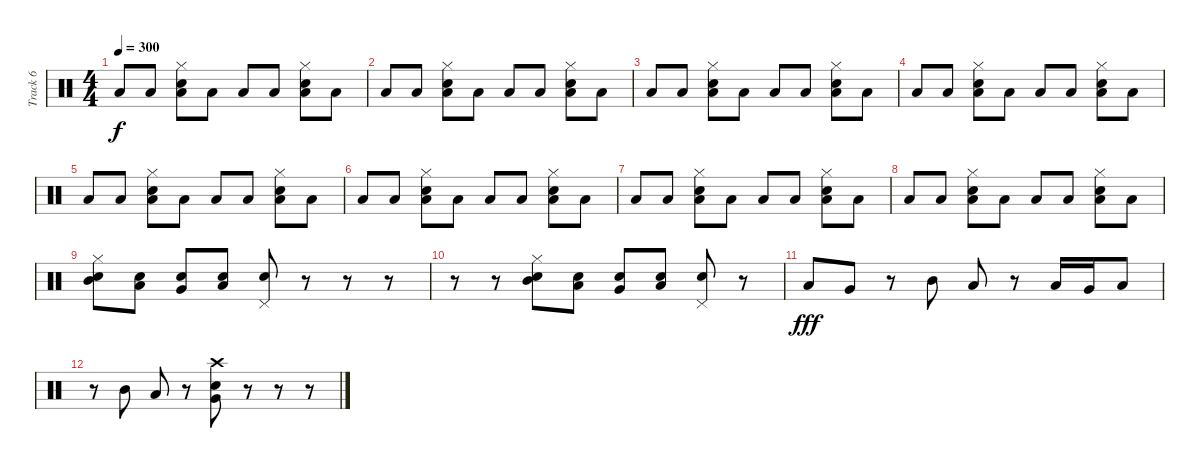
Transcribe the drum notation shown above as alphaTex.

\track ("Track 6" "Track 6") {instrument percussion}
\staff {score}
\articulation defaults
\ts (4 4)
\tempo 300
\clef neutral
\ks c "Low Floor Tom (hit)".8{dy f} "Low Floor Tom (hit)".8
("Electric Snare (hit)" "Low Tom (hit)" "Hi-Hat (closed)").8 "Low Floor Tom (hit)".8 "Low Floor Tom (hit)".8 "Low Floor Tom (hit)".8 ("Electric Snare (hit)" "Low Tom (hit)" "Hi-Hat (closed)").8 "Low Floor Tom (hit)".8 |
"Low Floor Tom (hit)".8 "Low Floor Tom (hit)".8 ("Electric Snare (hit)" "Low Tom (hit)" "Hi-Hat (closed)").8 "Low Floor Tom (hit)".8 "Low Floor Tom (hit)".8 "Low Floor Tom (hit)".8 ("Electric Snare (hit)" "Low Tom (hit)" "Hi-Hat (closed)").8 "Low Floor Tom (hit)".8 |
"Low Floor Tom (hit)".8 "Low Floor Tom (hit)".8 ("Electric Snare (hit)" "Low Tom (hit)" "Hi-Hat (closed)").8 "Low Floor Tom (hit)".8 "Low Floor Tom (hit)".8 "Low Floor Tom (hit)".8 ("Electric Snare (hit)" "Low Tom (hit)" "Hi-Hat (closed)").8 "Low Floor Tom (hit)".8 |
"Low Floor Tom (hit)".8 "Low Floor Tom (hit)".8 ("Electric Snare (hit)" "Low Tom (hit)" "Hi-Hat (closed)").8 "Low Floor Tom (hit)".8 "Low Floor Tom (hit)".8 "Low Floor Tom (hit)".8 ("Electric Snare (hit)" "Low Tom (hit)" "Hi-Hat (closed)").8 "Low Floor Tom (hit)".8 |
"Low Floor Tom (hit)".8 "Low Floor Tom (hit)".8 ("Electric Snare (hit)" "Low Tom (hit)" "Hi-Hat (closed)").8 "Low Floor Tom (hit)".8 "Low Floor Tom (hit)".8 "Low Floor Tom (hit)".8 ("Electric Snare (hit)" "Low Tom (hit)" "Hi-Hat (closed)").8 "Low Floor Tom (hit)".8 |
"Low Floor Tom (hit)".8 "Low Floor Tom (hit)".8 ("Electric Snare (hit)" "Low Tom (hit)" "Hi-Hat (closed)").8 "Low Floor Tom (hit)".8 "Low Floor Tom (hit)".8 "Low Floor Tom (hit)".8 ("Electric Snare (hit)" "Low Tom (hit)" "Hi-Hat (closed)").8 "Low Floor Tom (hit)".8 |
"Low Floor Tom (hit)".8 "Low Floor Tom (hit)".8 ("Electric Snare (hit)" "Low Tom (hit)" "Hi-Hat (closed)").8 "Low Floor Tom (hit)".8 "Low Floor Tom (hit)".8 "Low Floor Tom (hit)".8 ("Electric Snare (hit)" "Low Tom (hit)" "Hi-Hat (closed)").8 "Low Floor Tom (hit)".8 |
"Low Floor Tom (hit)".8 "Low Floor Tom (hit)".8 ("Electric Snare (hit)" "Low Tom (hit)" "Hi-Hat (closed)").8 "Low Floor Tom (hit)".8 "Low Floor Tom (hit)".8 "Low Floor Tom (hit)".8 ("Electric Snare (hit)" "Low Tom (hit)" "Hi-Hat (closed)").8 "Low Floor Tom (hit)".8 |
("Mid Tom (hit)" "Hi-Hat (closed)" "Snare (hit) 2").8 ("Low Tom (hit)" "Snare (hit) 2").8 ("Very Low Tom (hit)" "Snare (hit) 2").8 ("Low Floor Tom (hit)" "Snare (hit) 2").8 ("Pedal Hi-Hat (hit)" "Snare (hit) 2").8 r.8 r.8 r.8 |
r.8 r.8 ("Mid Tom (hit)" "Hi-Hat (closed)" "Snare (hit) 2").8 ("Low Tom (hit)" "Snare (hit) 2").8 ("Very Low Tom (hit)" "Snare (hit) 2").8 ("Low Floor Tom (hit)" "Snare (hit) 2").8 ("Pedal Hi-Hat (hit)" "Snare (hit) 2").8 r.8 |
"Low Tom (hit)".8{dy fff} "Very Low Tom (hit)".8 r.8 "Mid Tom (hit)".8 "Low Tom (hit)".8 r.8 "Low Tom (hit)".16 "Very Low Tom (hit)".16 "Low Floor Tom (hit)".8 |
r.8 "Mid Tom (hit)".8 "Low Tom (hit)".8 r.8 ("Very Low Tom (hit)" "Crash high (hit)" "Snare (hit) 2").8 r.8 r.8 r.8
